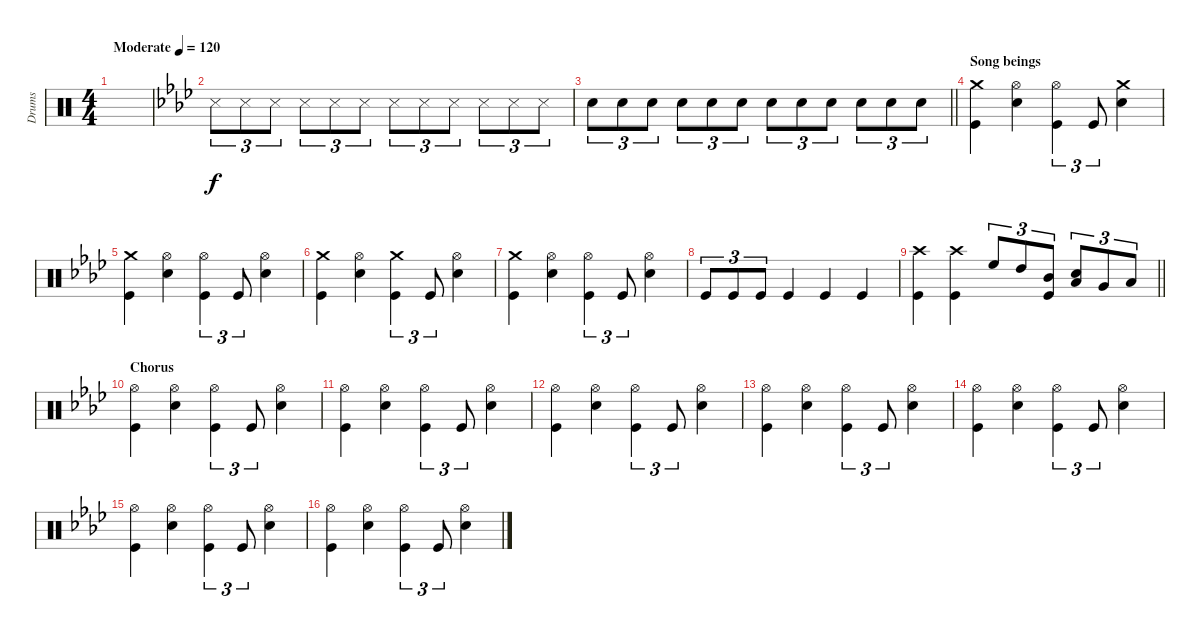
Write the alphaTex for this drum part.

\track ("Drums" "Drums") {instrument percussion}
\staff {score}
\articulation defaults
\ts (4 4)
\tempo (120 "Moderate")
\clef neutral
\ks c
|
\ks ab "Snare (side stick) 3".8{tu (3 2)} "Snare (side stick) 3".8{tu (3 2)} "Snare (side stick) 3".8{tu (3 2)} "Snare (side stick) 3".8{tu (3 2)} "Snare (side stick) 3".8{tu (3 2)} "Snare (side stick) 3".8{tu (3 2)} "Snare (side stick) 3".8{tu (3 2)} "Snare (side stick) 3".8{tu (3 2)} "Snare (side stick) 3".8{tu (3 2)} "Snare (side stick) 3".8{tu (3 2)} "Snare (side stick) 3".8{tu (3 2)} "Snare (side stick) 3".8{tu (3 2)}
|
\barLineRight lightlight "Snare (hit) 2".8{tu (3 2)} "Snare (hit) 2".8{tu (3 2)} "Snare (hit) 2".8{tu (3 2)} "Snare (hit) 2".8{tu (3 2)} "Snare (hit) 2".8{tu (3 2)} "Snare (hit) 2".8{tu (3 2)} "Snare (hit) 2".8{tu (3 2)} "Snare (hit) 2".8{tu (3 2)} "Snare (hit) 2".8{tu (3 2)} "Snare (hit) 2".8{tu (3 2)} "Snare (hit) 2".8{tu (3 2)} "Snare (hit) 2".8{tu (3 2)}
|
\section ("" "Song beings")
("Crash medium (hit)" "Kick (hit)").4 ("Hi-Hat (open)" "Snare (hit) 2").4 ("Hi-Hat (open)" "Kick (hit)").4{tu (3 2)} "Kick (hit)".8{tu (3 2)} ("Crash medium (hit)" "Snare (hit) 2").4 |
("Crash medium (hit)" "Kick (hit)").4 ("Hi-Hat (open)" "Snare (hit) 2").4 ("Hi-Hat (open)" "Kick (hit)").4{tu (3 2)} "Kick (hit)".8{tu (3 2)} ("Hi-Hat (open)" "Snare (hit) 2").4 |
("Crash medium (hit)" "Kick (hit)").4 ("Hi-Hat (open)" "Snare (hit) 2").4 ("Crash medium (hit)" "Kick (hit)").4{tu (3 2)} "Kick (hit)".8{tu (3 2)} ("Hi-Hat (open)" "Snare (hit) 2").4 |
("Crash medium (hit)" "Kick (hit)").4 ("Hi-Hat (open)" "Snare (hit) 2").4 ("Hi-Hat (open)" "Kick (hit)").4{tu (3 2)} "Kick (hit)".8{tu (3 2)} ("Hi-Hat (open)" "Snare (hit) 2").4 |
"Kick (hit)".8{tu (3 2)} "Kick (hit)".8{tu (3 2)} "Kick (hit)".8{tu (3 2)} "Kick (hit)".4 "Kick (hit)".4 "Kick (hit)".4 |
\barLineRight lightlight
("Crash high (hit)" "Kick (hit)").4 ("Crash high (hit)" "Kick (hit)").4 "High Floor Tom (hit)".8{tu (3 2)} "High Tom (hit)".8{tu (3 2)} ("Mid Tom (hit)" "Kick (hit)").8{tu (3 2)} ("Low Tom (hit)" "Snare (hit) 2").8{tu (3 2)} "Very Low Tom (hit)".8{tu (3 2)} "Low Floor Tom (hit)".8{tu (3 2)} |
\section ("" "Chorus")
("Hi-Hat (open)" "Kick (hit)").4 ("Hi-Hat (open)" "Snare (hit) 2").4 ("Hi-Hat (open)" "Kick (hit)").4{tu (3 2)} "Kick (hit)".8{tu (3 2)} ("Hi-Hat (open)" "Snare (hit) 2").4 |
("Hi-Hat (open)" "Kick (hit)").4 ("Hi-Hat (open)" "Snare (hit) 2").4 ("Hi-Hat (open)" "Kick (hit)").4{tu (3 2)} "Kick (hit)".8{tu (3 2)} ("Hi-Hat (open)" "Snare (hit) 2").4 |
("Hi-Hat (open)" "Kick (hit)").4 ("Hi-Hat (open)" "Snare (hit) 2").4 ("Hi-Hat (open)" "Kick (hit)").4{tu (3 2)} "Kick (hit)".8{tu (3 2)} ("Hi-Hat (open)" "Snare (hit) 2").4 |
("Hi-Hat (open)" "Kick (hit)").4 ("Hi-Hat (open)" "Snare (hit) 2").4 ("Hi-Hat (open)" "Kick (hit)").4{tu (3 2)} "Kick (hit)".8{tu (3 2)} ("Hi-Hat (open)" "Snare (hit) 2").4 |
("Hi-Hat (open)" "Kick (hit)").4 ("Hi-Hat (open)" "Snare (hit) 2").4 ("Hi-Hat (open)" "Kick (hit)").4{tu (3 2)} "Kick (hit)".8{tu (3 2)} ("Hi-Hat (open)" "Snare (hit) 2").4 |
("Hi-Hat (open)" "Kick (hit)").4 ("Hi-Hat (open)" "Snare (hit) 2").4 ("Hi-Hat (open)" "Kick (hit)").4{tu (3 2)} "Kick (hit)".8{tu (3 2)} ("Hi-Hat (open)" "Snare (hit) 2").4 |
("Hi-Hat (open)" "Kick (hit)").4 ("Hi-Hat (open)" "Snare (hit) 2").4 ("Hi-Hat (open)" "Kick (hit)").4{tu (3 2)} "Kick (hit)".8{tu (3 2)} ("Hi-Hat (open)" "Snare (hit) 2").4
